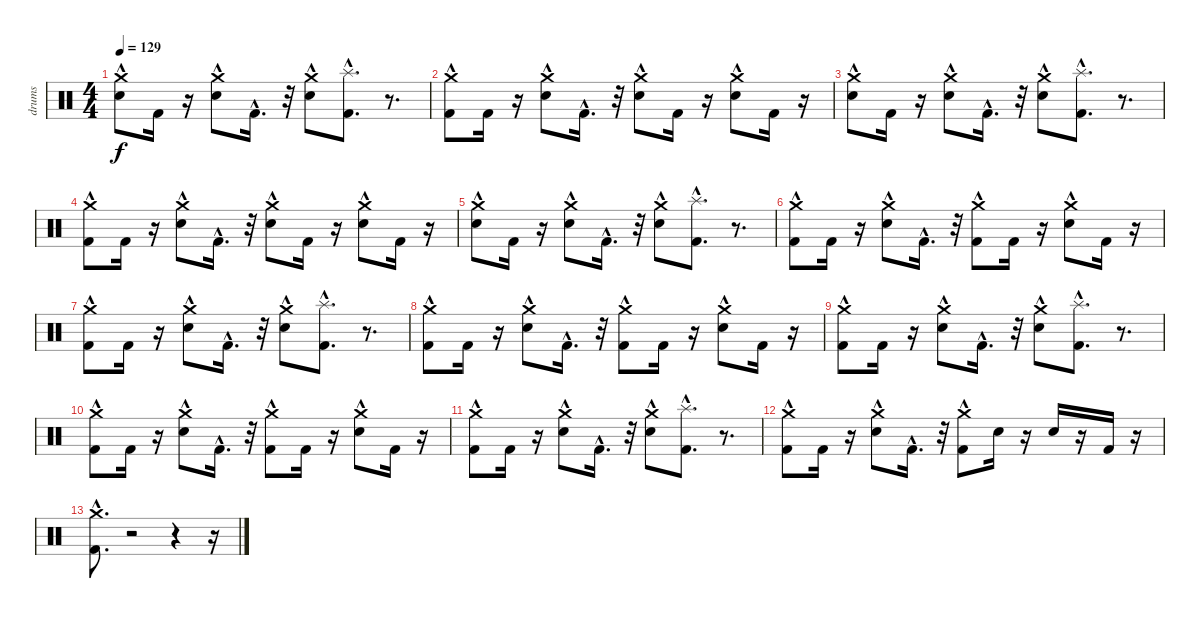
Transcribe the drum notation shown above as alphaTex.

\track ("drums" "drums") {instrument percussion}
\staff {score}
\articulation defaults
\ts (4 4)
\tempo 129
\clef neutral
\ks c
("Snare (hit) 2" "Crash medium (hit)"{hac}).8{dy f} "Kick (hit) 2".16 r.16 ("Snare (hit) 2" "Crash medium (hit)"{hac}).8 "Kick (hit) 2"{hac}.16{d} r.32 ("Snare (hit) 2" "Crash medium (hit)"{hac}).8 ("Kick (hit) 2" "Splash (hit)"{hac}).8{d} r.8{d} |
("Kick (hit) 2" "Crash medium (hit)"{hac}).8 "Kick (hit) 2".16 r.16 ("Snare (hit) 2" "Crash medium (hit)"{hac}).8 "Kick (hit) 2"{hac}.16{d} r.32 ("Snare (hit) 2" "Crash medium (hit)"{hac}).8 "Kick (hit) 2".16 r.16 ("Snare (hit) 2" "Crash medium (hit)"{hac}).8 "Kick (hit) 2".16 r.16 |
("Snare (hit) 2" "Crash medium (hit)"{hac}).8 "Kick (hit) 2".16 r.16 ("Snare (hit) 2" "Crash medium (hit)"{hac}).8 "Kick (hit) 2"{hac}.16{d} r.32 ("Snare (hit) 2" "Crash medium (hit)"{hac}).8 ("Kick (hit) 2" "Splash (hit)"{hac}).8{d} r.8{d} |
("Kick (hit) 2" "Crash medium (hit)"{hac}).8 "Kick (hit) 2".16 r.16 ("Snare (hit) 2" "Crash medium (hit)"{hac}).8 "Kick (hit) 2"{hac}.16{d} r.32 ("Snare (hit) 2" "Crash medium (hit)"{hac}).8 "Kick (hit) 2".16 r.16 ("Snare (hit) 2" "Crash medium (hit)"{hac}).8 "Kick (hit) 2".16 r.16 |
("Snare (hit) 2" "Crash medium (hit)"{hac}).8 "Kick (hit) 2".16 r.16 ("Snare (hit) 2" "Crash medium (hit)"{hac}).8 "Kick (hit) 2"{hac}.16{d} r.32 ("Snare (hit) 2" "Crash medium (hit)"{hac}).8 ("Kick (hit) 2" "Splash (hit)"{hac}).8{d} r.8{d} |
("Kick (hit) 2" "Crash medium (hit)"{hac}).8 "Kick (hit) 2".16 r.16 ("Snare (hit) 2" "Crash medium (hit)"{hac}).8 "Kick (hit) 2"{hac}.16{d} r.32 ("Kick (hit) 2" "Crash medium (hit)"{hac}).8 "Kick (hit) 2".16 r.16 ("Snare (hit) 2" "Crash medium (hit)"{hac}).8 "Kick (hit) 2".16 r.16 |
("Kick (hit) 2" "Crash medium (hit)"{hac}).8 "Kick (hit) 2".16 r.16 ("Snare (hit) 2" "Crash medium (hit)"{hac}).8 "Kick (hit) 2"{hac}.16{d} r.32 ("Snare (hit) 2" "Crash medium (hit)"{hac}).8 ("Kick (hit) 2" "Splash (hit)"{hac}).8{d} r.8{d} |
("Kick (hit) 2" "Crash medium (hit)"{hac}).8 "Kick (hit) 2".16 r.16 ("Snare (hit) 2" "Crash medium (hit)"{hac}).8 "Kick (hit) 2"{hac}.16{d} r.32 ("Kick (hit) 2" "Crash medium (hit)"{hac}).8 "Kick (hit) 2".16 r.16 ("Snare (hit) 2" "Crash medium (hit)"{hac}).8 "Kick (hit) 2".16 r.16 |
("Kick (hit) 2" "Crash medium (hit)"{hac}).8 "Kick (hit) 2".16 r.16 ("Snare (hit) 2" "Crash medium (hit)"{hac}).8 "Kick (hit) 2"{hac}.16{d} r.32 ("Snare (hit) 2" "Crash medium (hit)"{hac}).8 ("Kick (hit) 2" "Splash (hit)"{hac}).8{d} r.8{d} |
("Kick (hit) 2" "Crash medium (hit)"{hac}).8 "Kick (hit) 2".16 r.16 ("Snare (hit) 2" "Crash medium (hit)"{hac}).8 "Kick (hit) 2"{hac}.16{d} r.32 ("Kick (hit) 2" "Crash medium (hit)"{hac}).8 "Kick (hit) 2".16 r.16 ("Snare (hit) 2" "Crash medium (hit)"{hac}).8 "Kick (hit) 2".16 r.16 |
("Kick (hit) 2" "Crash medium (hit)"{hac}).8 "Kick (hit) 2".16 r.16 ("Snare (hit) 2" "Crash medium (hit)"{hac}).8 "Kick (hit) 2"{hac}.16{d} r.32 ("Snare (hit) 2" "Crash medium (hit)"{hac}).8 ("Kick (hit) 2" "Splash (hit)"{hac}).8{d} r.8{d} |
("Kick (hit) 2" "Crash medium (hit)"{hac}).8 "Kick (hit) 2".16 r.16 ("Snare (hit) 2" "Crash medium (hit)"{hac}).8 "Kick (hit) 2"{hac}.16{d} r.32 ("Kick (hit) 2" "Crash medium (hit)"{hac}).8 "Snare (hit) 2".16 r.16 "Snare (hit) 2".16 r.16 "Kick (hit) 2".16 r.16 |
("Kick (hit) 2" "Crash medium (hit)"{hac}).8{d} r.2 r.4 r.16
